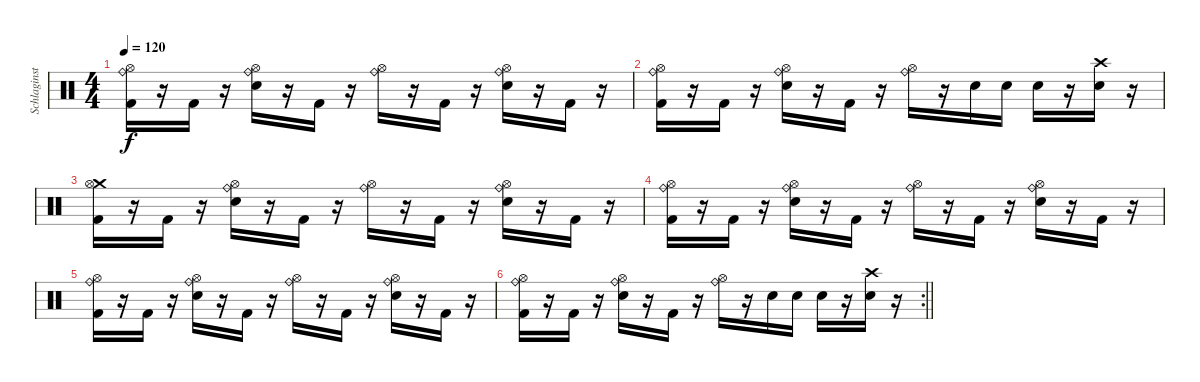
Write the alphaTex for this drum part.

\track ("Schlaginstrumente - Auswahl" "Schlaginst") {instrument percussion}
\staff {score}
\articulation defaults
\ts (4 4)
\tempo 120
\clef neutral
\ks c
("Hi-Hat (open)" "Ride (bell)" "Kick (hit) 2").16{dy f} r.16 "Kick (hit) 2".16 r.16 ("Hi-Hat (open)" "Ride (bell)" "Electric Snare (hit)").16 r.16 "Kick (hit) 2".16 r.16 ("Hi-Hat (open)" "Ride (bell)").16 r.16 "Kick (hit) 2".16 r.16 ("Hi-Hat (open)" "Ride (bell)" "Electric Snare (hit)").16 r.16 "Kick (hit) 2".16 r.16 |
("Hi-Hat (open)" "Ride (bell)" "Kick (hit) 2").16 r.16 "Kick (hit) 2".16 r.16 ("Hi-Hat (open)" "Ride (bell)" "Electric Snare (hit)").16 r.16 "Kick (hit) 2".16 r.16 ("Hi-Hat (open)" "Ride (bell)").16 r.16 "Electric Snare (hit)".16 "Electric Snare (hit)".16 "Electric Snare (hit)".16 r.16 ("Crash high (hit)" "Electric Snare (hit)").16 r.16 |
("Crash medium (hit)" "Hi-Hat (open)" "Kick (hit) 2").16 r.16 "Kick (hit) 2".16 r.16 ("Hi-Hat (open)" "Ride (bell)" "Electric Snare (hit)").16 r.16 "Kick (hit) 2".16 r.16 ("Hi-Hat (open)" "Ride (bell)").16 r.16 "Kick (hit) 2".16 r.16 ("Hi-Hat (open)" "Ride (bell)" "Electric Snare (hit)").16 r.16 "Kick (hit) 2".16 r.16 |
("Hi-Hat (open)" "Ride (bell)" "Kick (hit) 2").16 r.16 "Kick (hit) 2".16 r.16 ("Hi-Hat (open)" "Ride (bell)" "Electric Snare (hit)").16 r.16 "Kick (hit) 2".16 r.16 ("Hi-Hat (open)" "Ride (bell)").16 r.16 "Kick (hit) 2".16 r.16 ("Hi-Hat (open)" "Ride (bell)" "Electric Snare (hit)").16 r.16 "Kick (hit) 2".16 r.16 |
("Hi-Hat (open)" "Ride (bell)" "Kick (hit) 2").16 r.16 "Kick (hit) 2".16 r.16 ("Hi-Hat (open)" "Ride (bell)" "Electric Snare (hit)").16 r.16 "Kick (hit) 2".16 r.16 ("Hi-Hat (open)" "Ride (bell)").16 r.16 "Kick (hit) 2".16 r.16 ("Hi-Hat (open)" "Ride (bell)" "Electric Snare (hit)").16 r.16 "Kick (hit) 2".16 r.16 |
\rc 2
\barLineRight lightlight
("Hi-Hat (open)" "Ride (bell)" "Kick (hit) 2").16 r.16 "Kick (hit) 2".16 r.16 ("Hi-Hat (open)" "Ride (bell)" "Electric Snare (hit)").16 r.16 "Kick (hit) 2".16 r.16 ("Hi-Hat (open)" "Ride (bell)").16 r.16 "Electric Snare (hit)".16 "Electric Snare (hit)".16 "Electric Snare (hit)".16 r.16 ("Crash high (hit)" "Electric Snare (hit)").16 r.16
